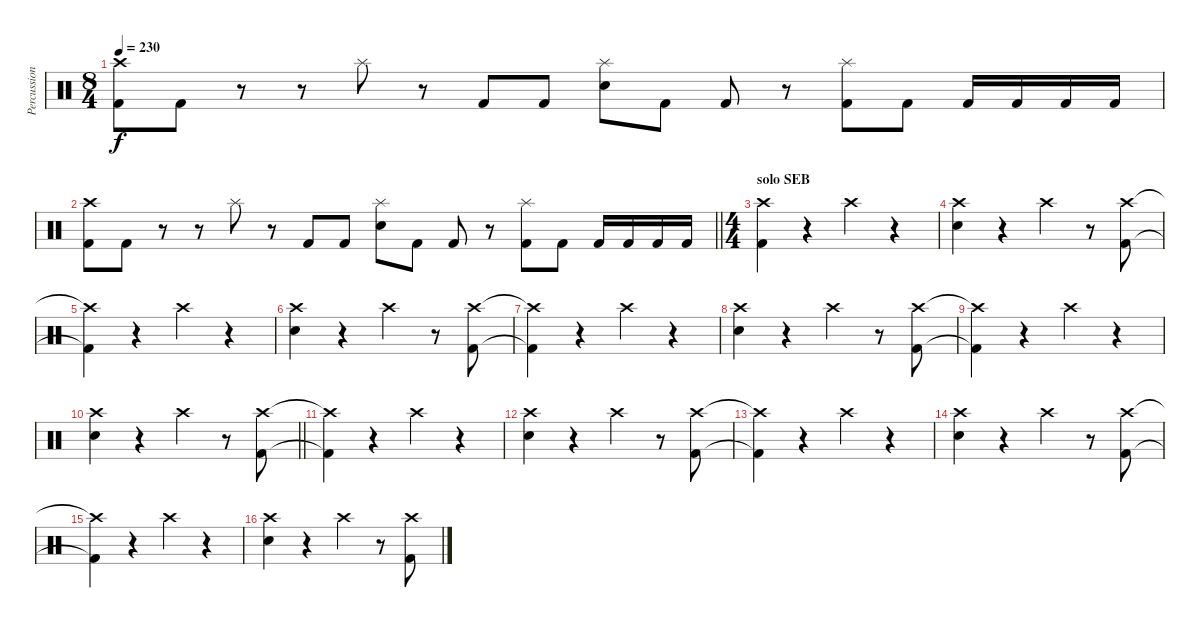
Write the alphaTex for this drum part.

\track ("Percussions" "Percussion") {instrument percussion}
\staff {score}
\articulation defaults
\ts (8 4)
\tempo 230
\clef neutral
\ks c
("Kick (hit) 2" "Crash high (hit)").8{dy f} "Kick (hit) 2".8 r.8 r.8 "Splash (hit)".8 r.8 "Kick (hit) 2".8 "Kick (hit) 2".8 ("Electric Snare (hit)" "Splash (hit)").8 "Kick (hit) 2".8 "Kick (hit) 2".8 r.8 ("Kick (hit) 2" "Splash (hit)").8 "Kick (hit) 2".8 "Kick (hit) 2".16 "Kick (hit) 2".16 "Kick (hit) 2".16 "Kick (hit) 2".16 |
\barLineRight lightlight
("Kick (hit) 2" "Crash high (hit)").8 "Kick (hit) 2".8 r.8 r.8 "Splash (hit)".8 r.8 "Kick (hit) 2".8 "Kick (hit) 2".8 ("Electric Snare (hit)" "Splash (hit)").8 "Kick (hit) 2".8 "Kick (hit) 2".8 r.8 ("Kick (hit) 2" "Splash (hit)").8 "Kick (hit) 2".8 "Kick (hit) 2".16 "Kick (hit) 2".16 "Kick (hit) 2".16 "Kick (hit) 2".16 |
\ts (4 4)
\section ("" "solo SEB")
("Crash high (hit)" "Kick (hit) 2").4 r.4 "Crash high (hit)".4 r.4 |
("Crash high (hit)" "Electric Snare (hit)").4 r.4 "Crash high (hit)".4 r.8 ("Crash high (hit)" "Kick (hit) 2").8 |
("Crash high (hit)"{t} "Kick (hit) 2"{t}).4 r.4 "Crash high (hit)".4 r.4 |
("Crash high (hit)" "Electric Snare (hit)").4 r.4 "Crash high (hit)".4 r.8 ("Crash high (hit)" "Kick (hit) 2").8 |
("Crash high (hit)"{t} "Kick (hit) 2"{t}).4 r.4 "Crash high (hit)".4 r.4 |
("Crash high (hit)" "Electric Snare (hit)").4 r.4 "Crash high (hit)".4 r.8 ("Crash high (hit)" "Kick (hit) 2").8 |
("Crash high (hit)"{t} "Kick (hit) 2"{t}).4 r.4 "Crash high (hit)".4 r.4 |
\barLineRight lightlight
("Crash high (hit)" "Electric Snare (hit)").4 r.4 "Crash high (hit)".4 r.8 ("Crash high (hit)" "Kick (hit) 2").8 |
("Crash high (hit)"{t} "Kick (hit) 2"{t}).4 r.4 "Crash high (hit)".4 r.4 |
("Crash high (hit)" "Electric Snare (hit)").4 r.4 "Crash high (hit)".4 r.8 ("Crash high (hit)" "Kick (hit) 2").8 |
("Crash high (hit)"{t} "Kick (hit) 2"{t}).4 r.4 "Crash high (hit)".4 r.4 |
("Crash high (hit)" "Electric Snare (hit)").4 r.4 "Crash high (hit)".4 r.8 ("Crash high (hit)" "Kick (hit) 2").8 |
("Crash high (hit)"{t} "Kick (hit) 2"{t}).4 r.4 "Crash high (hit)".4 r.4 |
("Crash high (hit)" "Electric Snare (hit)").4 r.4 "Crash high (hit)".4 r.8 ("Crash high (hit)" "Kick (hit) 2").8
